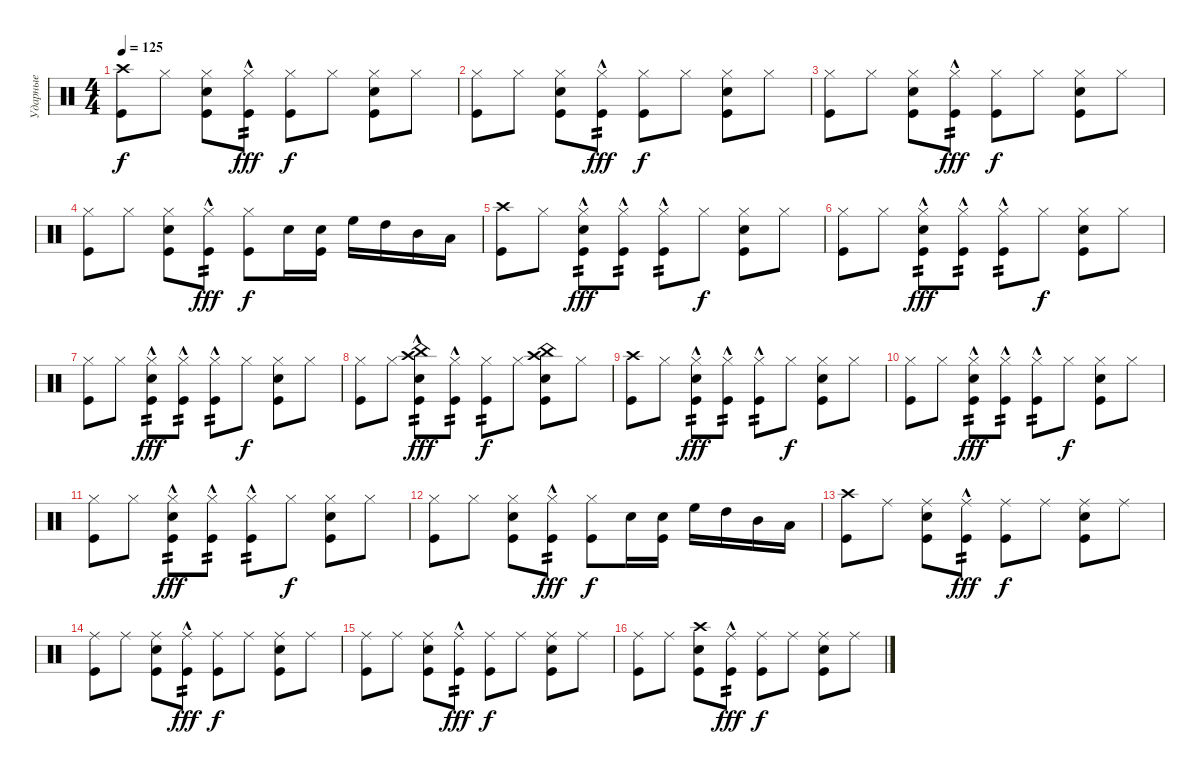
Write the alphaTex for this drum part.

\track ("Ударные" "Ударные") {instrument percussion}
\staff {score}
\articulation defaults
\ts (4 4)
\tempo 125
\clef neutral
\ks c
("Crash high (hit)" "Kick (hit)").8{dy f} "Hi-Hat (closed)".8 ("Hi-Hat (closed)" "Snare (hit) 2" "Kick (hit)").8 ("Hi-Hat (closed)" "Kick (hit)"{hac}).8{tp 2 dy fff} ("Hi-Hat (closed)" "Kick (hit)").8{dy f} "Hi-Hat (closed)".8 ("Hi-Hat (closed)" "Snare (hit) 2" "Kick (hit)").8 "Hi-Hat (closed)".8 |
("Hi-Hat (closed)" "Kick (hit)").8 "Hi-Hat (closed)".8 ("Hi-Hat (closed)" "Snare (hit) 2" "Kick (hit)").8 ("Hi-Hat (closed)" "Kick (hit)"{hac}).8{tp 2 dy fff} ("Hi-Hat (closed)" "Kick (hit)").8{dy f} "Hi-Hat (closed)".8 ("Hi-Hat (closed)" "Snare (hit) 2" "Kick (hit)").8 "Hi-Hat (closed)".8 |
("Hi-Hat (closed)" "Kick (hit)").8 "Hi-Hat (closed)".8 ("Hi-Hat (closed)" "Snare (hit) 2" "Kick (hit)").8 ("Hi-Hat (closed)" "Kick (hit)"{hac}).8{tp 2 dy fff} ("Hi-Hat (closed)" "Kick (hit)").8{dy f} "Hi-Hat (closed)".8 ("Hi-Hat (closed)" "Snare (hit) 2" "Kick (hit)").8 "Hi-Hat (closed)".8 |
("Hi-Hat (closed)" "Kick (hit)").8 "Hi-Hat (closed)".8 ("Hi-Hat (closed)" "Snare (hit) 2" "Kick (hit)").8 ("Hi-Hat (closed)" "Kick (hit)"{hac}).8{tp 2 dy fff} ("Hi-Hat (closed)" "Kick (hit)").8{dy f} "Snare (hit) 2".16 ("Snare (hit) 2" "Kick (hit)").16 "High Floor Tom (hit)".16 "High Tom (hit)".16 "Mid Tom (hit)".16 "Low Tom (hit)".16 |
("Crash high (hit)" "Kick (hit)").8 "Hi-Hat (closed)".8 ("Hi-Hat (closed)" "Snare (hit) 2" "Kick (hit)"{hac}).8{tp 2 dy fff} ("Hi-Hat (closed)" "Kick (hit)"{hac}).8{tp 2} ("Hi-Hat (closed)" "Kick (hit)"{hac}).8{tp 2} "Hi-Hat (closed)".8{dy f} ("Hi-Hat (closed)" "Snare (hit) 2" "Kick (hit)").8 "Hi-Hat (closed)".8 |
("Hi-Hat (closed)" "Kick (hit)").8 "Hi-Hat (closed)".8 ("Hi-Hat (closed)" "Snare (hit) 2" "Kick (hit)"{hac}).8{tp 2 dy fff} ("Hi-Hat (closed)" "Kick (hit)"{hac}).8{tp 2} ("Hi-Hat (closed)" "Kick (hit)"{hac}).8{tp 2} "Hi-Hat (closed)".8{dy f} ("Hi-Hat (closed)" "Snare (hit) 2" "Kick (hit)").8 "Hi-Hat (closed)".8 |
("Hi-Hat (closed)" "Kick (hit)").8 "Hi-Hat (closed)".8 ("Hi-Hat (closed)" "Snare (hit) 2" "Kick (hit)"{hac}).8{tp 2 dy fff} ("Hi-Hat (closed)" "Kick (hit)"{hac}).8{tp 2} ("Hi-Hat (closed)" "Kick (hit)"{hac}).8{tp 2} "Hi-Hat (closed)".8{dy f} ("Hi-Hat (closed)" "Snare (hit) 2" "Kick (hit)").8 "Hi-Hat (closed)".8 |
("Hi-Hat (closed)" "Kick (hit)").8 "Hi-Hat (closed)".8 ("Crash high (hit)" "China (hit)" "Snare (hit) 2" "Kick (hit)"{hac}).8{tp 2 dy fff} ("Hi-Hat (closed)" "Kick (hit)"{hac}).8{tp 2} ("Hi-Hat (closed)" "Kick (hit)").8{tp 2 dy f} "Hi-Hat (closed)".8 ("Crash high (hit)" "China (hit)" "Snare (hit) 2" "Kick (hit)").8 "Hi-Hat (closed)".8 |
("Crash high (hit)" "Kick (hit)").8 "Hi-Hat (closed)".8 ("Hi-Hat (closed)" "Snare (hit) 2" "Kick (hit)"{hac}).8{tp 2 dy fff} ("Hi-Hat (closed)" "Kick (hit)"{hac}).8{tp 2} ("Hi-Hat (closed)" "Kick (hit)"{hac}).8{tp 2} "Hi-Hat (closed)".8{dy f} ("Hi-Hat (closed)" "Snare (hit) 2" "Kick (hit)").8 "Hi-Hat (closed)".8 |
("Hi-Hat (closed)" "Kick (hit)").8 "Hi-Hat (closed)".8 ("Hi-Hat (closed)" "Snare (hit) 2" "Kick (hit)"{hac}).8{tp 2 dy fff} ("Hi-Hat (closed)" "Kick (hit)"{hac}).8{tp 2} ("Hi-Hat (closed)" "Kick (hit)"{hac}).8{tp 2} "Hi-Hat (closed)".8{dy f} ("Hi-Hat (closed)" "Snare (hit) 2" "Kick (hit)").8 "Hi-Hat (closed)".8 |
("Hi-Hat (closed)" "Kick (hit)").8 "Hi-Hat (closed)".8 ("Hi-Hat (closed)" "Snare (hit) 2" "Kick (hit)"{hac}).8{tp 2 dy fff} ("Hi-Hat (closed)" "Kick (hit)"{hac}).8{tp 2} ("Hi-Hat (closed)" "Kick (hit)"{hac}).8{tp 2} "Hi-Hat (closed)".8{dy f} ("Hi-Hat (closed)" "Snare (hit) 2" "Kick (hit)").8 "Hi-Hat (closed)".8 |
("Hi-Hat (closed)" "Kick (hit)").8 "Hi-Hat (closed)".8 ("Hi-Hat (closed)" "Snare (hit) 2" "Kick (hit)").8 ("Hi-Hat (closed)" "Kick (hit)"{hac}).8{tp 2 dy fff} ("Hi-Hat (closed)" "Kick (hit)").8{dy f} "Snare (hit) 2".16 ("Snare (hit) 2" "Kick (hit)").16 "High Floor Tom (hit)".16 "High Tom (hit)".16 "Mid Tom (hit)".16 "Low Tom (hit)".16 |
("Crash high (hit)" "Kick (hit)").8 "Ride (middle)".8 ("Ride (middle)" "Snare (hit) 2" "Kick (hit)").8 ("Ride (middle)" "Kick (hit)"{hac}).8{tp 2 dy fff} ("Ride (middle)" "Kick (hit)").8{dy f} "Ride (middle)".8 ("Ride (middle)" "Snare (hit) 2" "Kick (hit)").8 "Ride (middle)".8 |
("Ride (middle)" "Kick (hit)").8 "Ride (middle)".8 ("Ride (middle)" "Snare (hit) 2" "Kick (hit)").8 ("Ride (middle)" "Kick (hit)"{hac}).8{tp 2 dy fff} ("Ride (middle)" "Kick (hit)").8{dy f} "Ride (middle)".8 ("Ride (middle)" "Snare (hit) 2" "Kick (hit)").8 "Ride (middle)".8 |
("Ride (middle)" "Kick (hit)").8 "Ride (middle)".8 ("Ride (middle)" "Snare (hit) 2" "Kick (hit)").8 ("Ride (middle)" "Kick (hit)"{hac}).8{tp 2 dy fff} ("Ride (middle)" "Kick (hit)").8{dy f} "Ride (middle)".8 ("Ride (middle)" "Snare (hit) 2" "Kick (hit)").8 "Ride (middle)".8 |
("Ride (middle)" "Kick (hit)").8 "Ride (middle)".8 ("Crash high (hit)" "Snare (hit) 2" "Kick (hit)").8 ("Ride (middle)" "Kick (hit)"{hac}).8{tp 2 dy fff} ("Ride (middle)" "Kick (hit)").8{dy f} "Ride (middle)".8 ("Ride (middle)" "Snare (hit) 2" "Kick (hit)").8 "Ride (middle)".8
